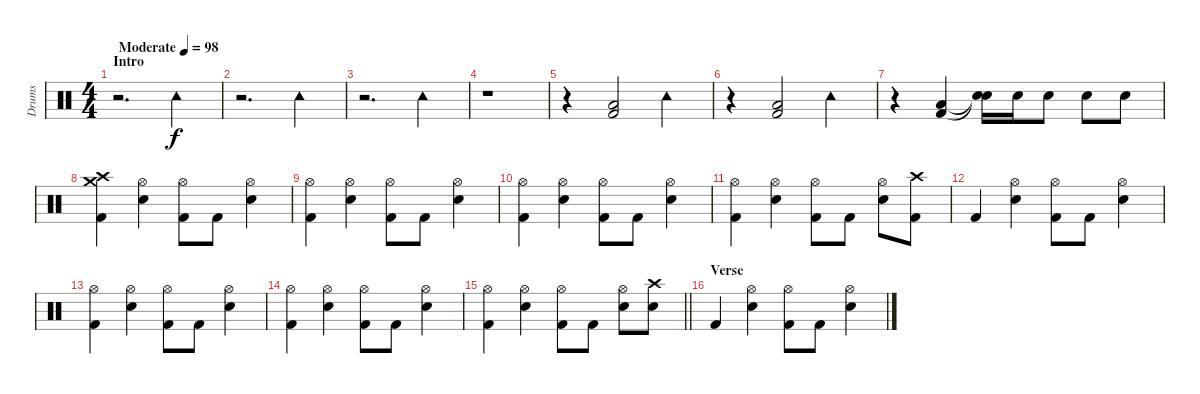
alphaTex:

\track ("Drums" "Drums") {instrument percussion}
\staff {score}
\articulation defaults
\ts (4 4)
\section ("" "Intro")
\tempo (98 "Moderate")
\clef neutral
\ks c
r.2{d dy f} "Tambourine (hit)".4 |
r.2{d} "Tambourine (hit)".4 |
r.2{d} "Tambourine (hit)".4 |
r.1 |
r.4 ("Low Floor Tom (hit)" "Kick (hit) 2").2 "Tambourine (hit)".4 |
r.4 ("Low Floor Tom (hit)" "Kick (hit) 2").2 "Tambourine (hit)".4 |
r.4 ("Low Floor Tom (hit)" "Kick (hit) 2").4 ("Snare (hit)"{t} "Snare (hit)"{t}).16 "Snare (hit) 2".16 "Snare (hit) 2".8 "Snare (hit) 2".8 "Snare (hit) 2".8 |
("Crash medium (hit)" "Crash high (hit)" "Kick (hit) 2").4 ("Hi-Hat (open)" "Snare (hit) 2").4 ("Hi-Hat (open)" "Kick (hit) 2").8 "Kick (hit) 2".8 ("Hi-Hat (open)" "Snare (hit) 2").4 |
("Hi-Hat (open)" "Kick (hit) 2").4 ("Hi-Hat (open)" "Snare (hit) 2").4 ("Hi-Hat (open)" "Kick (hit) 2").8 "Kick (hit) 2".8 ("Hi-Hat (open)" "Snare (hit) 2").4 |
("Hi-Hat (open)" "Kick (hit) 2").4 ("Hi-Hat (open)" "Snare (hit) 2").4 ("Hi-Hat (open)" "Kick (hit) 2").8 "Kick (hit) 2".8 ("Hi-Hat (open)" "Snare (hit) 2").4 |
("Hi-Hat (open)" "Kick (hit) 2").4 ("Hi-Hat (open)" "Snare (hit) 2").4 ("Hi-Hat (open)" "Kick (hit) 2").8 "Kick (hit) 2".8 ("Hi-Hat (open)" "Snare (hit) 2").8 ("Crash high (hit)" "Kick (hit) 2").8 |
"Kick (hit) 2".4 ("Hi-Hat (open)" "Snare (hit) 2").4 ("Hi-Hat (open)" "Kick (hit) 2").8 "Kick (hit) 2".8 ("Hi-Hat (open)" "Snare (hit) 2").4 |
("Hi-Hat (open)" "Kick (hit) 2").4 ("Hi-Hat (open)" "Snare (hit) 2").4 ("Hi-Hat (open)" "Kick (hit) 2").8 "Kick (hit) 2".8 ("Hi-Hat (open)" "Snare (hit) 2").4 |
("Hi-Hat (open)" "Kick (hit) 2").4 ("Hi-Hat (open)" "Snare (hit) 2").4 ("Hi-Hat (open)" "Kick (hit) 2").8 "Kick (hit) 2".8 ("Hi-Hat (open)" "Snare (hit) 2").4 |
\barLineRight lightlight
("Hi-Hat (open)" "Kick (hit) 2").4 ("Hi-Hat (open)" "Snare (hit) 2").4 ("Hi-Hat (open)" "Kick (hit) 2").8 "Kick (hit) 2".8 ("Hi-Hat (open)" "Snare (hit) 2").8 ("Crash high (hit)" "Snare (hit) 2").8 |
\section ("" "Verse")
"Kick (hit) 2".4 ("Hi-Hat (open)" "Snare (hit) 2").4 ("Hi-Hat (open)" "Kick (hit) 2").8 "Kick (hit) 2".8 ("Hi-Hat (open)" "Snare (hit) 2").4
